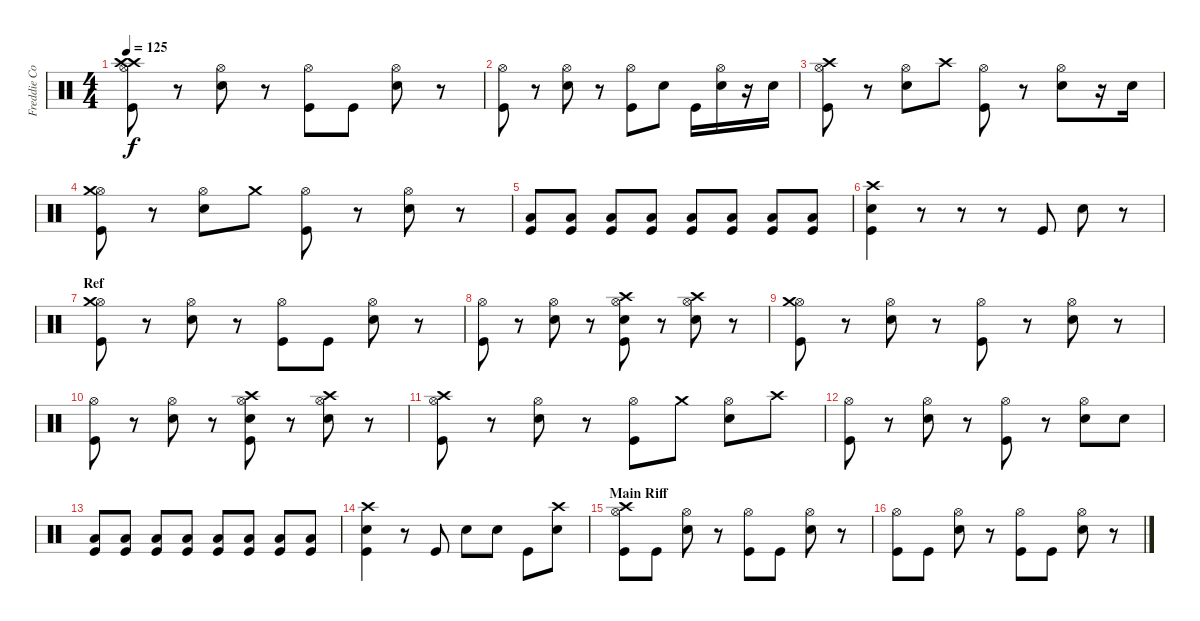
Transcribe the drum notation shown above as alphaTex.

\track ("Freddie Coury - Drums" "Freddie Co") {instrument percussion}
\staff {score}
\articulation defaults
\ts (4 4)
\tempo 125
\clef neutral
\ks c
("Hi-Hat (open)" "Crash high (hit)" "Crash high (hit)" "Kick (hit)").8{dy f} r.8 ("Hi-Hat (open)" "Snare (hit) 2").8 r.8 ("Hi-Hat (open)" "Kick (hit)").8 "Kick (hit)".8 ("Hi-Hat (open)" "Snare (hit) 2").8 r.8 |
("Hi-Hat (open)" "Kick (hit)").8 r.8 ("Hi-Hat (open)" "Snare (hit) 2").8 r.8 ("Hi-Hat (open)" "Kick (hit)").8 "Snare (hit) 2".8 "Kick (hit)".16 ("Hi-Hat (open)" "Snare (hit) 2").16 r.16 "Snare (hit) 2".16 |
("Hi-Hat (open)" "Crash high (hit)" "Kick (hit)").8 r.8 ("Hi-Hat (open)" "Snare (hit) 2").8 "Crash high (hit)".8 ("Hi-Hat (open)" "Kick (hit)").8 r.8 ("Hi-Hat (open)" "Snare (hit) 2").8 r.16 "Snare (hit) 2".16 |
("Hi-Hat (open)" "Crash medium (hit)" "Kick (hit)").8 r.8 ("Hi-Hat (open)" "Snare (hit) 2").8 "Crash medium (hit)".8 ("Hi-Hat (open)" "Kick (hit)").8 r.8 ("Hi-Hat (open)" "Snare (hit) 2").8 r.8 |
("Kick (hit)" "Low Floor Tom (hit)").8 ("Kick (hit)" "Low Floor Tom (hit)").8 ("Kick (hit)" "Low Floor Tom (hit)").8 ("Kick (hit)" "Low Floor Tom (hit)").8 ("Kick (hit)" "Low Floor Tom (hit)").8 ("Kick (hit)" "Low Floor Tom (hit)").8 ("Kick (hit)" "Low Floor Tom (hit)").8 ("Kick (hit)" "Low Floor Tom (hit)").8 |
("Crash high (hit)" "Snare (hit) 2" "Kick (hit)").4 r.8 r.8 r.8 "Kick (hit)".8 "Snare (hit) 2".8 r.8 |
\section ("" "Ref")
("Hi-Hat (open)" "Crash medium (hit)" "Kick (hit)").8 r.8 ("Hi-Hat (open)" "Snare (hit) 2").8 r.8 ("Hi-Hat (open)" "Kick (hit)").8 "Kick (hit)".8 ("Hi-Hat (open)" "Snare (hit) 2").8 r.8 |
("Hi-Hat (open)" "Kick (hit)").8 r.8 ("Hi-Hat (open)" "Snare (hit) 2").8 r.8 ("Hi-Hat (open)" "Crash high (hit)" "Snare (hit) 2" "Kick (hit)").8 r.8 ("Hi-Hat (open)" "Crash high (hit)" "Snare (hit) 2").8 r.8 |
("Hi-Hat (open)" "Crash medium (hit)" "Kick (hit)").8 r.8 ("Hi-Hat (open)" "Snare (hit) 2").8 r.8 ("Hi-Hat (open)" "Kick (hit)").8 r.8 ("Hi-Hat (open)" "Snare (hit) 2").8 r.8 |
("Hi-Hat (open)" "Kick (hit)").8 r.8 ("Hi-Hat (open)" "Snare (hit) 2").8 r.8 ("Hi-Hat (open)" "Crash high (hit)" "Snare (hit) 2" "Kick (hit)").8 r.8 ("Hi-Hat (open)" "Crash high (hit)" "Snare (hit) 2").8 r.8 |
("Hi-Hat (open)" "Crash high (hit)" "Kick (hit)").8 r.8 ("Hi-Hat (open)" "Snare (hit) 2").8 r.8 ("Hi-Hat (open)" "Kick (hit)").8 "Crash medium (hit)".8 ("Hi-Hat (open)" "Snare (hit) 2").8 "Crash high (hit)".8 |
("Hi-Hat (open)" "Kick (hit)").8 r.8 ("Hi-Hat (open)" "Snare (hit) 2").8 r.8 ("Hi-Hat (open)" "Kick (hit)").8 r.8 ("Hi-Hat (open)" "Snare (hit) 2").8 "Snare (hit) 2".8 |
("Kick (hit)" "Low Floor Tom (hit)").8 ("Kick (hit)" "Low Floor Tom (hit)").8 ("Kick (hit)" "Low Floor Tom (hit)").8 ("Kick (hit)" "Low Floor Tom (hit)").8 ("Kick (hit)" "Low Floor Tom (hit)").8 ("Kick (hit)" "Low Floor Tom (hit)").8 ("Kick (hit)" "Low Floor Tom (hit)").8 ("Kick (hit)" "Low Floor Tom (hit)").8 |
("Crash high (hit)" "Snare (hit) 2" "Kick (hit)").4 r.8 "Kick (hit)".8 "Snare (hit) 2".8 "Snare (hit) 2".8 "Kick (hit)".8 ("Snare (hit) 2" "Crash high (hit)").8 |
\section ("" "Main Riff")
("Hi-Hat (open)" "Crash high (hit)" "Kick (hit)").8 "Kick (hit)".8 ("Hi-Hat (open)" "Snare (hit) 2").8 r.8 ("Hi-Hat (open)" "Kick (hit)").8 "Kick (hit)".8 ("Hi-Hat (open)" "Snare (hit) 2").8 r.8 |
("Hi-Hat (open)" "Kick (hit)").8 "Kick (hit)".8 ("Hi-Hat (open)" "Snare (hit) 2").8 r.8 ("Hi-Hat (open)" "Kick (hit)").8 "Kick (hit)".8 ("Hi-Hat (open)" "Snare (hit) 2").8 r.8
